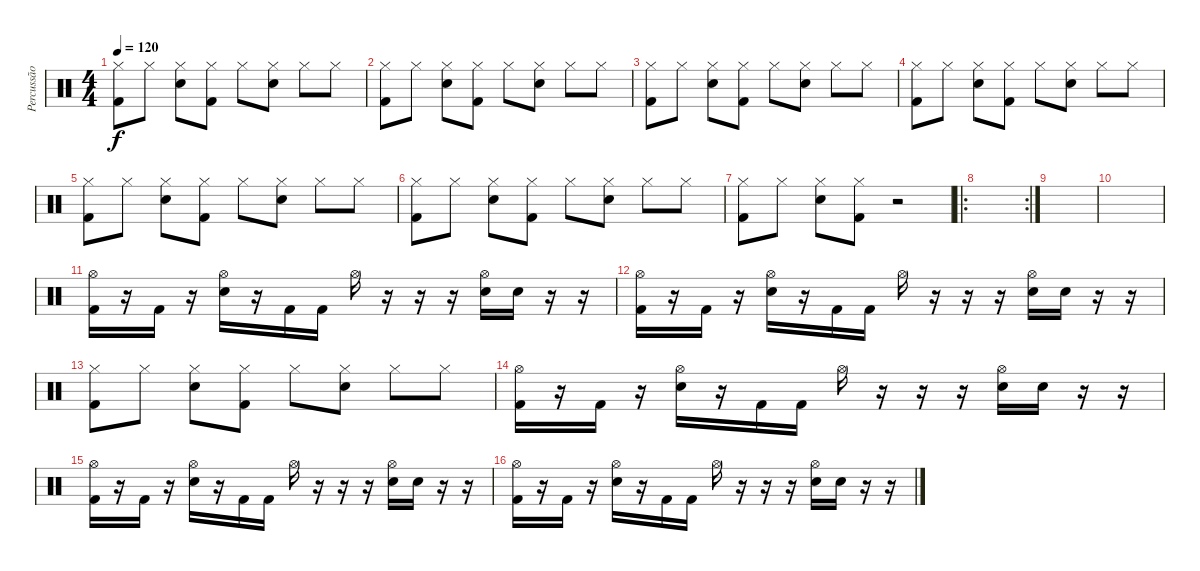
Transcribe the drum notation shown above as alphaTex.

\track ("Percussão" "Percussão") {instrument percussion}
\staff {score}
\articulation defaults
\ts (4 4)
\tempo 120
\clef neutral
\ks c
("Hi-Hat (closed)" "Kick (hit) 2").8{dy f} "Hi-Hat (closed)".8 ("Hi-Hat (closed)" "Electric Snare (hit)").8 ("Hi-Hat (closed)" "Kick (hit) 2").8 "Hi-Hat (closed)".8 ("Hi-Hat (closed)" "Electric Snare (hit)").8 "Hi-Hat (closed)".8 "Hi-Hat (closed)".8 |
("Hi-Hat (closed)" "Kick (hit) 2").8 "Hi-Hat (closed)".8 ("Hi-Hat (closed)" "Electric Snare (hit)").8 ("Hi-Hat (closed)" "Kick (hit) 2").8 "Hi-Hat (closed)".8 ("Hi-Hat (closed)" "Electric Snare (hit)").8 "Hi-Hat (closed)".8 "Hi-Hat (closed)".8 |
("Hi-Hat (closed)" "Kick (hit) 2").8 "Hi-Hat (closed)".8 ("Hi-Hat (closed)" "Electric Snare (hit)").8 ("Hi-Hat (closed)" "Kick (hit) 2").8 "Hi-Hat (closed)".8 ("Hi-Hat (closed)" "Electric Snare (hit)").8 "Hi-Hat (closed)".8 "Hi-Hat (closed)".8 |
("Hi-Hat (closed)" "Kick (hit) 2").8 "Hi-Hat (closed)".8 ("Hi-Hat (closed)" "Electric Snare (hit)").8 ("Hi-Hat (closed)" "Kick (hit) 2").8 "Hi-Hat (closed)".8 ("Hi-Hat (closed)" "Electric Snare (hit)").8 "Hi-Hat (closed)".8 "Hi-Hat (closed)".8 |
("Hi-Hat (closed)" "Kick (hit) 2").8 "Hi-Hat (closed)".8 ("Hi-Hat (closed)" "Electric Snare (hit)").8 ("Hi-Hat (closed)" "Kick (hit) 2").8 "Hi-Hat (closed)".8 ("Hi-Hat (closed)" "Electric Snare (hit)").8 "Hi-Hat (closed)".8 "Hi-Hat (closed)".8 |
("Hi-Hat (closed)" "Kick (hit) 2").8 "Hi-Hat (closed)".8 ("Hi-Hat (closed)" "Electric Snare (hit)").8 ("Hi-Hat (closed)" "Kick (hit) 2").8 "Hi-Hat (closed)".8 ("Hi-Hat (closed)" "Electric Snare (hit)").8 "Hi-Hat (closed)".8 "Hi-Hat (closed)".8 |
("Hi-Hat (closed)" "Kick (hit) 2").8 "Hi-Hat (closed)".8 ("Hi-Hat (closed)" "Electric Snare (hit)").8 ("Hi-Hat (closed)" "Kick (hit) 2").8 r.2 |
\ro
\rc 2
|
|
|
("Hi-Hat (open)" "Kick (hit) 2").16 r.16 "Kick (hit) 2".16 r.16 ("Hi-Hat (open)" "Electric Snare (hit)").16 r.16 "Kick (hit) 2".16 "Kick (hit) 2".16 "Hi-Hat (open)".16 r.16 r.16 r.16 ("Hi-Hat (open)" "Electric Snare (hit)").16 "Electric Snare (hit)".16 r.16 r.16 |
("Hi-Hat (open)" "Kick (hit) 2").16 r.16 "Kick (hit) 2".16 r.16 ("Hi-Hat (open)" "Electric Snare (hit)").16 r.16 "Kick (hit) 2".16 "Kick (hit) 2".16 "Hi-Hat (open)".16 r.16 r.16 r.16 ("Hi-Hat (open)" "Electric Snare (hit)").16 "Electric Snare (hit)".16 r.16 r.16 |
("Hi-Hat (closed)" "Kick (hit) 2").8 "Hi-Hat (closed)".8 ("Hi-Hat (closed)" "Electric Snare (hit)").8 ("Hi-Hat (closed)" "Kick (hit) 2").8 "Hi-Hat (closed)".8 ("Hi-Hat (closed)" "Electric Snare (hit)").8 "Hi-Hat (closed)".8 "Hi-Hat (closed)".8 |
("Hi-Hat (open)" "Kick (hit) 2").16 r.16 "Kick (hit) 2".16 r.16 ("Hi-Hat (open)" "Electric Snare (hit)").16 r.16 "Kick (hit) 2".16 "Kick (hit) 2".16 "Hi-Hat (open)".16 r.16 r.16 r.16 ("Hi-Hat (open)" "Electric Snare (hit)").16 "Electric Snare (hit)".16 r.16 r.16 |
("Hi-Hat (open)" "Kick (hit) 2").16 r.16 "Kick (hit) 2".16 r.16 ("Hi-Hat (open)" "Electric Snare (hit)").16 r.16 "Kick (hit) 2".16 "Kick (hit) 2".16 "Hi-Hat (open)".16 r.16 r.16 r.16 ("Hi-Hat (open)" "Electric Snare (hit)").16 "Electric Snare (hit)".16 r.16 r.16 |
("Hi-Hat (open)" "Kick (hit) 2").16 r.16 "Kick (hit) 2".16 r.16 ("Hi-Hat (open)" "Electric Snare (hit)").16 r.16 "Kick (hit) 2".16 "Kick (hit) 2".16 "Hi-Hat (open)".16 r.16 r.16 r.16 ("Hi-Hat (open)" "Electric Snare (hit)").16 "Electric Snare (hit)".16 r.16 r.16
